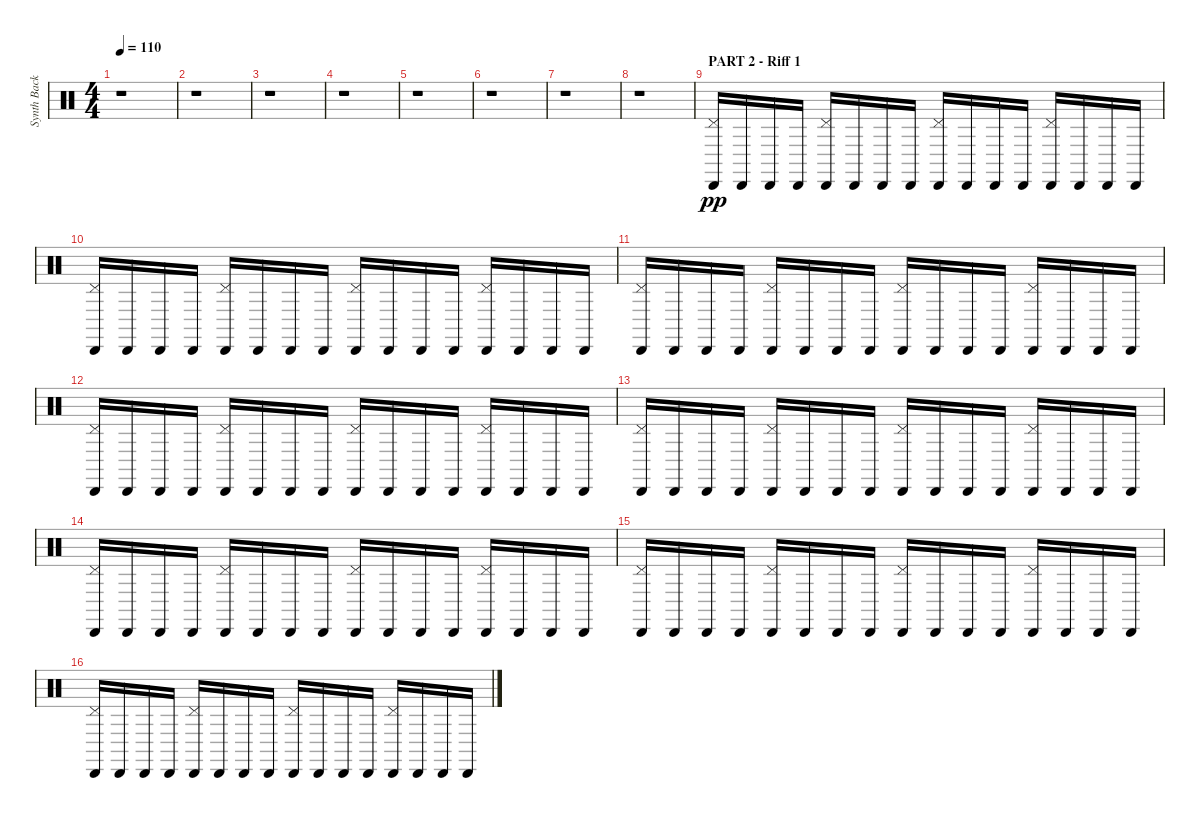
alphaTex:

\track ("Synth Background Rhythm" "Synth Back") {instrument percussion}
\staff {score}
\articulation defaults
\ts (4 4)
\tempo 110
\clef neutral
\ks c
r.1{dy pp} |
r.1 |
r.1 |
r.1 |
r.1 |
r.1 |
r.1 |
r.1 |
\section ("" "PART 2 - Riff 1")
("Pedal Hi-Hat (hit)" "Cabasa (hit)").16 "Cabasa (hit)".16 "Cabasa (hit)".16 "Cabasa (hit)".16 ("Pedal Hi-Hat (hit)" "Cabasa (hit)").16 "Cabasa (hit)".16 "Cabasa (hit)".16 "Cabasa (hit)".16 ("Pedal Hi-Hat (hit)" "Cabasa (hit)").16 "Cabasa (hit)".16 "Cabasa (hit)".16 "Cabasa (hit)".16 ("Pedal Hi-Hat (hit)" "Cabasa (hit)").16 "Cabasa (hit)".16 "Cabasa (hit)".16 "Cabasa (hit)".16 |
("Pedal Hi-Hat (hit)" "Cabasa (hit)").16 "Cabasa (hit)".16 "Cabasa (hit)".16 "Cabasa (hit)".16 ("Pedal Hi-Hat (hit)" "Cabasa (hit)").16 "Cabasa (hit)".16 "Cabasa (hit)".16 "Cabasa (hit)".16 ("Pedal Hi-Hat (hit)" "Cabasa (hit)").16 "Cabasa (hit)".16 "Cabasa (hit)".16 "Cabasa (hit)".16 ("Pedal Hi-Hat (hit)" "Cabasa (hit)").16 "Cabasa (hit)".16 "Cabasa (hit)".16 "Cabasa (hit)".16 |
("Pedal Hi-Hat (hit)" "Cabasa (hit)").16 "Cabasa (hit)".16 "Cabasa (hit)".16 "Cabasa (hit)".16 ("Pedal Hi-Hat (hit)" "Cabasa (hit)").16 "Cabasa (hit)".16 "Cabasa (hit)".16 "Cabasa (hit)".16 ("Pedal Hi-Hat (hit)" "Cabasa (hit)").16 "Cabasa (hit)".16 "Cabasa (hit)".16 "Cabasa (hit)".16 ("Pedal Hi-Hat (hit)" "Cabasa (hit)").16 "Cabasa (hit)".16 "Cabasa (hit)".16 "Cabasa (hit)".16 |
("Pedal Hi-Hat (hit)" "Cabasa (hit)").16 "Cabasa (hit)".16 "Cabasa (hit)".16 "Cabasa (hit)".16 ("Pedal Hi-Hat (hit)" "Cabasa (hit)").16 "Cabasa (hit)".16 "Cabasa (hit)".16 "Cabasa (hit)".16 ("Pedal Hi-Hat (hit)" "Cabasa (hit)").16 "Cabasa (hit)".16 "Cabasa (hit)".16 "Cabasa (hit)".16 ("Pedal Hi-Hat (hit)" "Cabasa (hit)").16 "Cabasa (hit)".16 "Cabasa (hit)".16 "Cabasa (hit)".16 |
("Pedal Hi-Hat (hit)" "Cabasa (hit)").16 "Cabasa (hit)".16 "Cabasa (hit)".16 "Cabasa (hit)".16 ("Pedal Hi-Hat (hit)" "Cabasa (hit)").16 "Cabasa (hit)".16 "Cabasa (hit)".16 "Cabasa (hit)".16 ("Pedal Hi-Hat (hit)" "Cabasa (hit)").16 "Cabasa (hit)".16 "Cabasa (hit)".16 "Cabasa (hit)".16 ("Pedal Hi-Hat (hit)" "Cabasa (hit)").16 "Cabasa (hit)".16 "Cabasa (hit)".16 "Cabasa (hit)".16 |
("Pedal Hi-Hat (hit)" "Cabasa (hit)").16 "Cabasa (hit)".16 "Cabasa (hit)".16 "Cabasa (hit)".16 ("Pedal Hi-Hat (hit)" "Cabasa (hit)").16 "Cabasa (hit)".16 "Cabasa (hit)".16 "Cabasa (hit)".16 ("Pedal Hi-Hat (hit)" "Cabasa (hit)").16 "Cabasa (hit)".16 "Cabasa (hit)".16 "Cabasa (hit)".16 ("Pedal Hi-Hat (hit)" "Cabasa (hit)").16 "Cabasa (hit)".16 "Cabasa (hit)".16 "Cabasa (hit)".16 |
("Pedal Hi-Hat (hit)" "Cabasa (hit)").16 "Cabasa (hit)".16 "Cabasa (hit)".16 "Cabasa (hit)".16 ("Pedal Hi-Hat (hit)" "Cabasa (hit)").16 "Cabasa (hit)".16 "Cabasa (hit)".16 "Cabasa (hit)".16 ("Pedal Hi-Hat (hit)" "Cabasa (hit)").16 "Cabasa (hit)".16 "Cabasa (hit)".16 "Cabasa (hit)".16 ("Pedal Hi-Hat (hit)" "Cabasa (hit)").16 "Cabasa (hit)".16 "Cabasa (hit)".16 "Cabasa (hit)".16 |
("Pedal Hi-Hat (hit)" "Cabasa (hit)").16 "Cabasa (hit)".16 "Cabasa (hit)".16 "Cabasa (hit)".16 ("Pedal Hi-Hat (hit)" "Cabasa (hit)").16 "Cabasa (hit)".16 "Cabasa (hit)".16 "Cabasa (hit)".16 ("Pedal Hi-Hat (hit)" "Cabasa (hit)").16 "Cabasa (hit)".16 "Cabasa (hit)".16 "Cabasa (hit)".16 ("Pedal Hi-Hat (hit)" "Cabasa (hit)").16 "Cabasa (hit)".16 "Cabasa (hit)".16 "Cabasa (hit)".16
